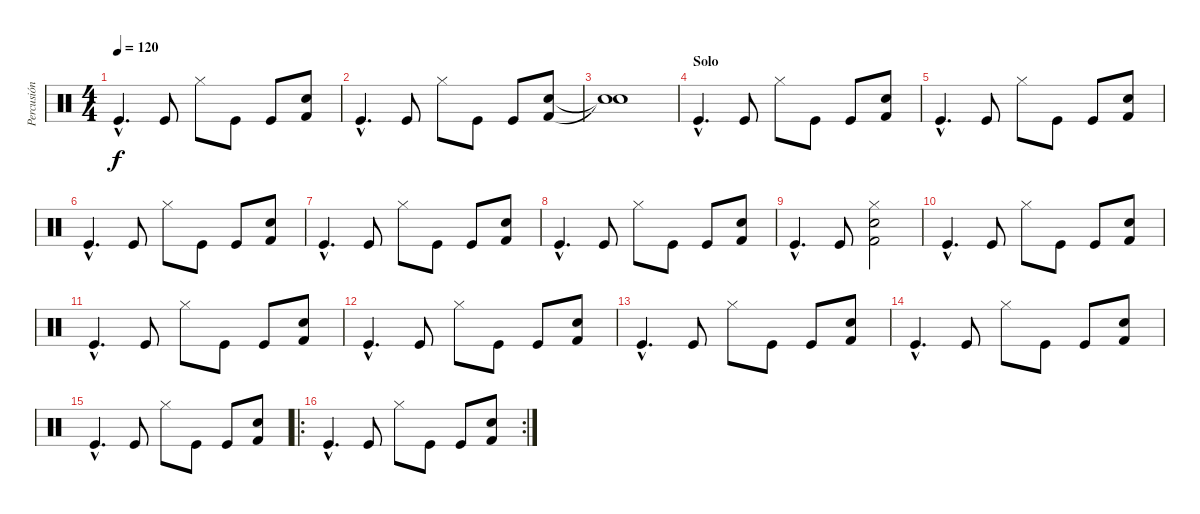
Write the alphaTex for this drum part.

\track ("Percusión" "Percusión") {instrument percussion}
\staff {score}
\articulation defaults
\ts (4 4)
\tempo 120
\clef neutral
\ks c "Kick (hit)"{hac}.4{d dy f} "Kick (hit)".8 "Hi-Hat (closed)".8 "Kick (hit)".8 "Kick (hit)".8
("Snare (hit) 2" "Kick (hit) 2").8 |
"Kick (hit)"{hac}.4{d} "Kick (hit)".8 "Hi-Hat (closed)".8 "Kick (hit)".8 "Kick (hit)".8 ("Snare (hit) 2" "Kick (hit) 2").8 |
("Snare (hit)"{t} "Snare (hit)"{t}).1 |
\section ("" "Solo")
"Kick (hit)"{hac}.4{d} "Kick (hit)".8 "Hi-Hat (closed)".8 "Kick (hit)".8 "Kick (hit)".8 ("Snare (hit) 2" "Kick (hit) 2").8 |
"Kick (hit)"{hac}.4{d} "Kick (hit)".8 "Hi-Hat (closed)".8 "Kick (hit)".8 "Kick (hit)".8 ("Snare (hit) 2" "Kick (hit) 2").8 |
"Kick (hit)"{hac}.4{d} "Kick (hit)".8 "Hi-Hat (closed)".8 "Kick (hit)".8 "Kick (hit)".8 ("Snare (hit) 2" "Kick (hit) 2").8 |
"Kick (hit)"{hac}.4{d} "Kick (hit)".8 "Hi-Hat (closed)".8 "Kick (hit)".8 "Kick (hit)".8 ("Snare (hit) 2" "Kick (hit) 2").8 |
"Kick (hit)"{hac}.4{d} "Kick (hit)".8 "Hi-Hat (closed)".8 "Kick (hit)".8 "Kick (hit)".8 ("Snare (hit) 2" "Kick (hit) 2").8 |
"Kick (hit)"{hac}.4{d} "Kick (hit)".8 ("Kick (hit) 2" "Snare (hit) 2" "Hi-Hat (closed)").2 |
"Kick (hit)"{hac}.4{d} "Kick (hit)".8 "Hi-Hat (closed)".8 "Kick (hit)".8 "Kick (hit)".8 ("Snare (hit) 2" "Kick (hit) 2").8 |
"Kick (hit)"{hac}.4{d} "Kick (hit)".8 "Hi-Hat (closed)".8 "Kick (hit)".8 "Kick (hit)".8 ("Snare (hit) 2" "Kick (hit) 2").8 |
"Kick (hit)"{hac}.4{d} "Kick (hit)".8 "Hi-Hat (closed)".8 "Kick (hit)".8 "Kick (hit)".8 ("Snare (hit) 2" "Kick (hit) 2").8 |
"Kick (hit)"{hac}.4{d} "Kick (hit)".8 "Hi-Hat (closed)".8 "Kick (hit)".8 "Kick (hit)".8 ("Snare (hit) 2" "Kick (hit) 2").8 |
"Kick (hit)"{hac}.4{d} "Kick (hit)".8 "Hi-Hat (closed)".8 "Kick (hit)".8 "Kick (hit)".8 ("Snare (hit) 2" "Kick (hit) 2").8 |
"Kick (hit)"{hac}.4{d} "Kick (hit)".8 "Hi-Hat (closed)".8 "Kick (hit)".8 "Kick (hit)".8 ("Snare (hit) 2" "Kick (hit) 2").8 |
\ro
\rc 2 "Kick (hit)"{hac}.4{d} "Kick (hit)".8 "Hi-Hat (closed)".8 "Kick (hit)".8 "Kick (hit)".8
("Snare (hit) 2" "Kick (hit) 2").8
